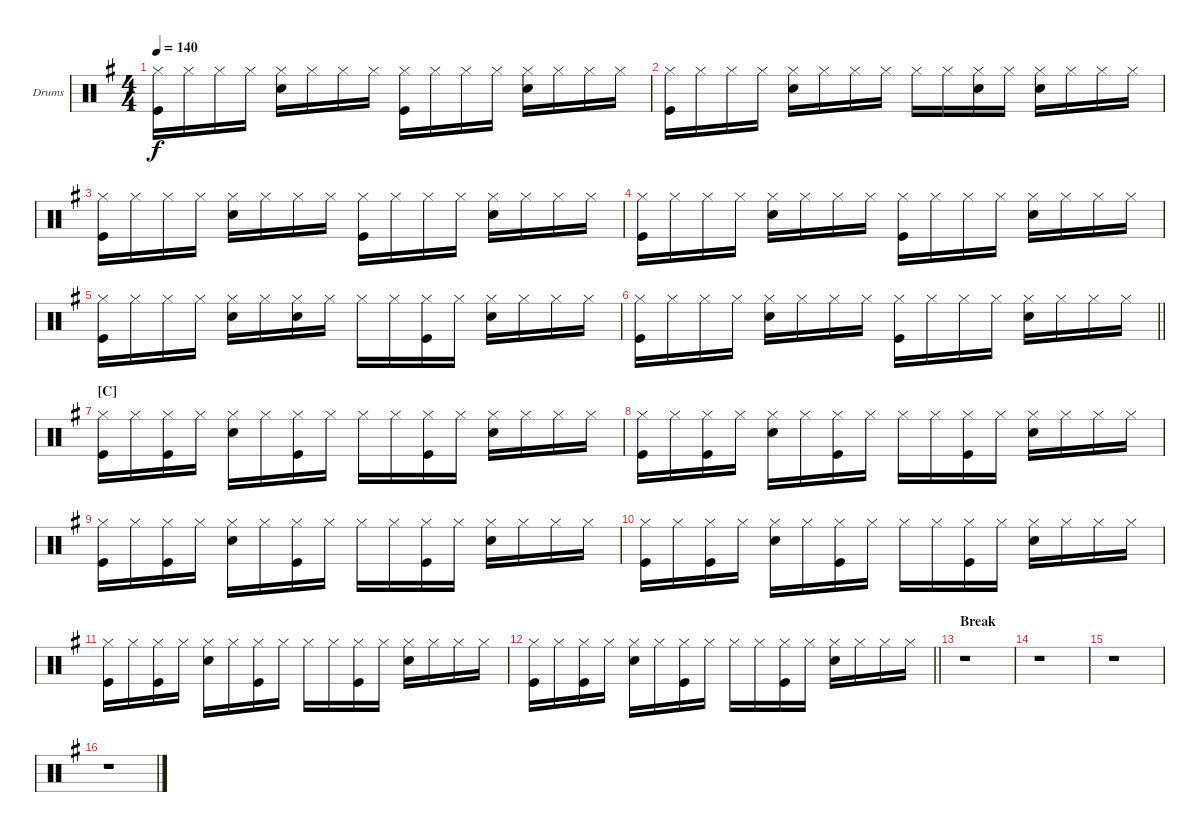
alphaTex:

\bracketExtendMode groupsimilarinstruments
\firstSystemTrackNameOrientation horizontal
\otherSystemsTrackNameOrientation horizontal
\track ("Fabrizio Moretti" "Drums") {instrument percussion}
\staff {score}
\articulation defaults
\ts (4 4)
\tempo 140
\clef neutral
\ks g
("Hi-Hat (closed)" "Kick (hit)").16{dy f} "Hi-Hat (closed)".16 "Hi-Hat (closed)".16 "Hi-Hat (closed)".16 ("Snare (hit) 2" "Hi-Hat (closed)").16 "Hi-Hat (closed)".16 "Hi-Hat (closed)".16 "Hi-Hat (closed)".16 ("Hi-Hat (closed)" "Kick (hit)").16 "Hi-Hat (closed)".16 "Hi-Hat (closed)".16 "Hi-Hat (closed)".16 ("Snare (hit) 2" "Hi-Hat (closed)").16 "Hi-Hat (closed)".16 "Hi-Hat (closed)".16 "Hi-Hat (closed)".16 |
("Hi-Hat (closed)" "Kick (hit)").16 "Hi-Hat (closed)".16 "Hi-Hat (closed)".16 "Hi-Hat (closed)".16 ("Snare (hit) 2" "Hi-Hat (closed)").16 "Hi-Hat (closed)".16 "Hi-Hat (closed)".16 "Hi-Hat (closed)".16 "Hi-Hat (closed)".16 "Hi-Hat (closed)".16 ("Snare (hit) 2" "Hi-Hat (closed)").16 "Hi-Hat (closed)".16 ("Snare (hit) 2" "Hi-Hat (closed)").16 "Hi-Hat (closed)".16 "Hi-Hat (closed)".16 "Hi-Hat (closed)".16 |
("Hi-Hat (closed)" "Kick (hit)").16 "Hi-Hat (closed)".16 "Hi-Hat (closed)".16 "Hi-Hat (closed)".16 ("Snare (hit) 2" "Hi-Hat (closed)").16 "Hi-Hat (closed)".16 "Hi-Hat (closed)".16 "Hi-Hat (closed)".16 ("Hi-Hat (closed)" "Kick (hit)").16 "Hi-Hat (closed)".16 "Hi-Hat (closed)".16 "Hi-Hat (closed)".16 ("Snare (hit) 2" "Hi-Hat (closed)").16 "Hi-Hat (closed)".16 "Hi-Hat (closed)".16 "Hi-Hat (closed)".16 |
("Hi-Hat (closed)" "Kick (hit)").16 "Hi-Hat (closed)".16 "Hi-Hat (closed)".16 "Hi-Hat (closed)".16 ("Snare (hit) 2" "Hi-Hat (closed)").16 "Hi-Hat (closed)".16 "Hi-Hat (closed)".16 "Hi-Hat (closed)".16 ("Hi-Hat (closed)" "Kick (hit)").16 "Hi-Hat (closed)".16 "Hi-Hat (closed)".16 "Hi-Hat (closed)".16 ("Snare (hit) 2" "Hi-Hat (closed)").16 "Hi-Hat (closed)".16 "Hi-Hat (closed)".16 "Hi-Hat (closed)".16 |
("Hi-Hat (closed)" "Kick (hit)").16 "Hi-Hat (closed)".16 "Hi-Hat (closed)".16 "Hi-Hat (closed)".16 ("Snare (hit) 2" "Hi-Hat (closed)").16 "Hi-Hat (closed)".16 ("Snare (hit) 2" "Hi-Hat (closed)").16 "Hi-Hat (closed)".16 "Hi-Hat (closed)".16 "Hi-Hat (closed)".16 ("Hi-Hat (closed)" "Kick (hit)").16 "Hi-Hat (closed)".16 ("Snare (hit) 2" "Hi-Hat (closed)").16 "Hi-Hat (closed)".16 "Hi-Hat (closed)".16 "Hi-Hat (closed)".16 |
\barLineRight lightlight
("Hi-Hat (closed)" "Kick (hit)").16 "Hi-Hat (closed)".16 "Hi-Hat (closed)".16 "Hi-Hat (closed)".16 ("Snare (hit) 2" "Hi-Hat (closed)").16 "Hi-Hat (closed)".16 "Hi-Hat (closed)".16 "Hi-Hat (closed)".16 ("Hi-Hat (closed)" "Kick (hit)").16 "Hi-Hat (closed)".16 "Hi-Hat (closed)".16 "Hi-Hat (closed)".16 ("Snare (hit) 2" "Hi-Hat (closed)").16 "Hi-Hat (closed)".16 "Hi-Hat (closed)".16 "Hi-Hat (closed)".16 |
\section ("C" "")
("Hi-Hat (closed)" "Kick (hit)").16 "Hi-Hat (closed)".16 ("Hi-Hat (closed)" "Kick (hit)").16 "Hi-Hat (closed)".16 ("Snare (hit) 2" "Hi-Hat (closed)").16 "Hi-Hat (closed)".16 ("Hi-Hat (closed)" "Kick (hit)").16 "Hi-Hat (closed)".16 "Hi-Hat (closed)".16 "Hi-Hat (closed)".16 ("Hi-Hat (closed)" "Kick (hit)").16 "Hi-Hat (closed)".16 ("Snare (hit) 2" "Hi-Hat (closed)").16 "Hi-Hat (closed)".16 "Hi-Hat (closed)".16 "Hi-Hat (closed)".16 |
("Hi-Hat (closed)" "Kick (hit)").16 "Hi-Hat (closed)".16 ("Hi-Hat (closed)" "Kick (hit)").16 "Hi-Hat (closed)".16 ("Snare (hit) 2" "Hi-Hat (closed)").16 "Hi-Hat (closed)".16 ("Hi-Hat (closed)" "Kick (hit)").16 "Hi-Hat (closed)".16 "Hi-Hat (closed)".16 "Hi-Hat (closed)".16 ("Hi-Hat (closed)" "Kick (hit)").16 "Hi-Hat (closed)".16 ("Snare (hit) 2" "Hi-Hat (closed)").16 "Hi-Hat (closed)".16 "Hi-Hat (closed)".16 "Hi-Hat (closed)".16 |
("Hi-Hat (closed)" "Kick (hit)").16 "Hi-Hat (closed)".16 ("Hi-Hat (closed)" "Kick (hit)").16 "Hi-Hat (closed)".16 ("Snare (hit) 2" "Hi-Hat (closed)").16 "Hi-Hat (closed)".16 ("Hi-Hat (closed)" "Kick (hit)").16 "Hi-Hat (closed)".16 "Hi-Hat (closed)".16 "Hi-Hat (closed)".16 ("Hi-Hat (closed)" "Kick (hit)").16 "Hi-Hat (closed)".16 ("Snare (hit) 2" "Hi-Hat (closed)").16 "Hi-Hat (closed)".16 "Hi-Hat (closed)".16 "Hi-Hat (closed)".16 |
("Hi-Hat (closed)" "Kick (hit)").16 "Hi-Hat (closed)".16 ("Hi-Hat (closed)" "Kick (hit)").16 "Hi-Hat (closed)".16 ("Snare (hit) 2" "Hi-Hat (closed)").16 "Hi-Hat (closed)".16 ("Hi-Hat (closed)" "Kick (hit)").16 "Hi-Hat (closed)".16 "Hi-Hat (closed)".16 "Hi-Hat (closed)".16 ("Hi-Hat (closed)" "Kick (hit)").16 "Hi-Hat (closed)".16 ("Snare (hit) 2" "Hi-Hat (closed)").16 "Hi-Hat (closed)".16 "Hi-Hat (closed)".16 "Hi-Hat (closed)".16 |
("Hi-Hat (closed)" "Kick (hit)").16 "Hi-Hat (closed)".16 ("Hi-Hat (closed)" "Kick (hit)").16 "Hi-Hat (closed)".16 ("Snare (hit) 2" "Hi-Hat (closed)").16 "Hi-Hat (closed)".16 ("Hi-Hat (closed)" "Kick (hit)").16 "Hi-Hat (closed)".16 "Hi-Hat (closed)".16 "Hi-Hat (closed)".16 ("Hi-Hat (closed)" "Kick (hit)").16 "Hi-Hat (closed)".16 ("Snare (hit) 2" "Hi-Hat (closed)").16 "Hi-Hat (closed)".16 "Hi-Hat (closed)".16 "Hi-Hat (closed)".16 |
\barLineRight lightlight
("Hi-Hat (closed)" "Kick (hit)").16 "Hi-Hat (closed)".16 ("Hi-Hat (closed)" "Kick (hit)").16 "Hi-Hat (closed)".16 ("Snare (hit) 2" "Hi-Hat (closed)").16 "Hi-Hat (closed)".16 ("Hi-Hat (closed)" "Kick (hit)").16 "Hi-Hat (closed)".16 "Hi-Hat (closed)".16 "Hi-Hat (closed)".16 ("Hi-Hat (closed)" "Kick (hit)").16 "Hi-Hat (closed)".16 ("Snare (hit) 2" "Hi-Hat (closed)").16 "Hi-Hat (closed)".16 "Hi-Hat (closed)".16 "Hi-Hat (closed)".16 |
\section ("" "Break")
r.1 |
r.1 |
r.1 |
r.1
